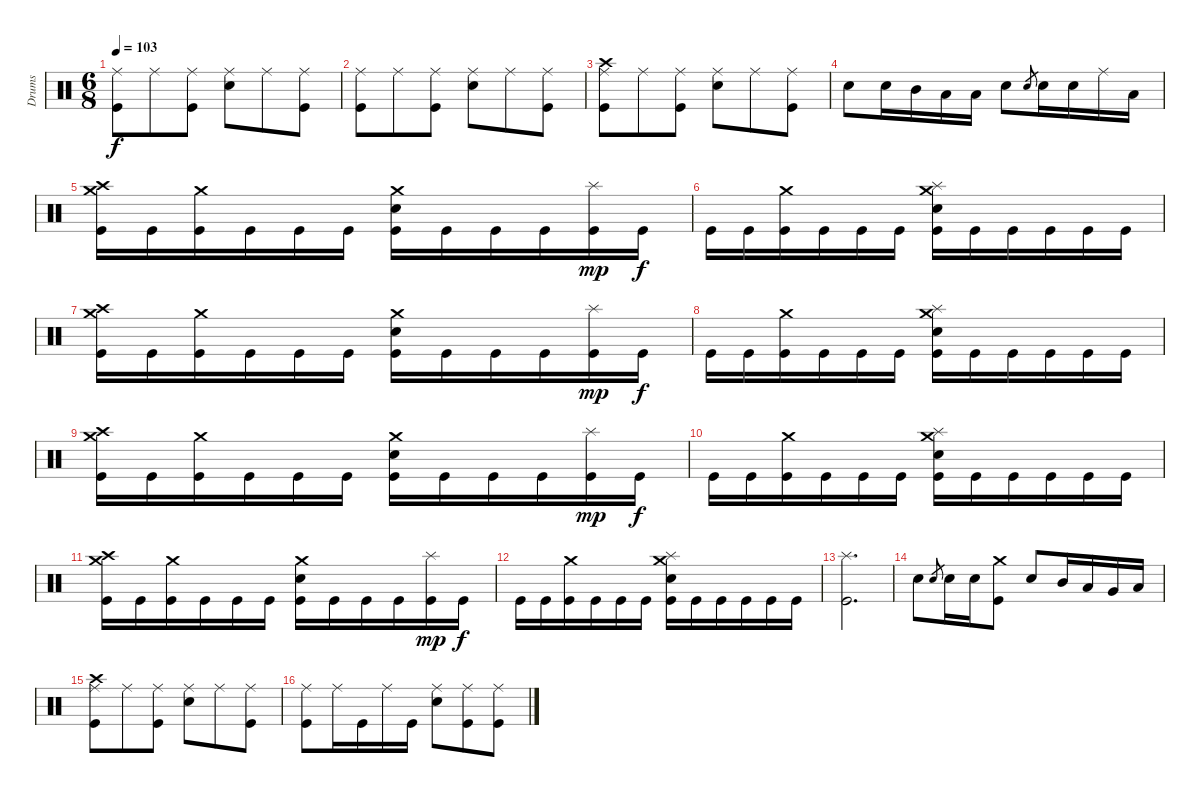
\track ("Drums" "Drums") {instrument percussion}
\staff {score}
\articulation defaults
\ts (6 8)
\tempo 103
\clef neutral
\ks c
("Ride (middle)" "Kick (hit)").8{dy f} "Ride (middle)".8 ("Ride (middle)" "Kick (hit)").8 ("Ride (middle)" "Electric Snare (hit)").8 "Ride (middle)".8 ("Ride (middle)" "Kick (hit)").8 |
("Ride (middle)" "Kick (hit)").8 "Ride (middle)".8 ("Ride (middle)" "Kick (hit)").8 ("Ride (middle)" "Electric Snare (hit)").8 "Ride (middle)".8 ("Ride (middle)" "Kick (hit)").8 |
("Crash high (hit)" "Ride (middle)" "Kick (hit)").8 "Ride (middle)".8 ("Ride (middle)" "Kick (hit)").8 ("Ride (middle)" "Electric Snare (hit)").8 "Ride (middle)".8 ("Ride (middle)" "Kick (hit)").8 |
"Electric Snare (hit)".8 "Electric Snare (hit)".16 "Mid Tom (hit)".16 "Low Tom (hit)".16 "Low Tom (hit)".16 "Electric Snare (hit)".8 "Electric Snare (hit)".8{gr} "Electric Snare (hit)".16 "Electric Snare (hit)".16 "Ride (middle)".16 "Low Floor Tom (hit)".16 |
("Crash high (hit)" "Crash medium (hit)" "Kick (hit)").16 "Kick (hit)".16 ("Crash medium (hit)" "Kick (hit)").16 "Kick (hit)".16 "Kick (hit)".16 "Kick (hit)".16 ("Crash medium (hit)" "Electric Snare (hit)" "Kick (hit)").16 "Kick (hit)".16 "Kick (hit)".16 "Kick (hit)".16 ("Splash (hit)" "Kick (hit)").16{dy mp} "Kick (hit)".16{dy f} |
"Kick (hit)".16 "Kick (hit)".16 ("Crash medium (hit)" "Kick (hit)").16 "Kick (hit)".16 "Kick (hit)".16 "Kick (hit)".16 ("Splash (hit)" "Crash medium (hit)" "Electric Snare (hit)" "Kick (hit)").16 "Kick (hit)".16 "Kick (hit)".16 "Kick (hit)".16 "Kick (hit)".16 "Kick (hit)".16 |
("Crash high (hit)" "Crash medium (hit)" "Kick (hit)").16 "Kick (hit)".16 ("Crash medium (hit)" "Kick (hit)").16 "Kick (hit)".16 "Kick (hit)".16 "Kick (hit)".16 ("Crash medium (hit)" "Electric Snare (hit)" "Kick (hit)").16 "Kick (hit)".16 "Kick (hit)".16 "Kick (hit)".16 ("Splash (hit)" "Kick (hit)").16{dy mp} "Kick (hit)".16{dy f} |
"Kick (hit)".16 "Kick (hit)".16 ("Crash medium (hit)" "Kick (hit)").16 "Kick (hit)".16 "Kick (hit)".16 "Kick (hit)".16 ("Splash (hit)" "Crash medium (hit)" "Electric Snare (hit)" "Kick (hit)").16 "Kick (hit)".16 "Kick (hit)".16 "Kick (hit)".16 "Kick (hit)".16 "Kick (hit)".16 |
("Crash high (hit)" "Crash medium (hit)" "Kick (hit)").16 "Kick (hit)".16 ("Crash medium (hit)" "Kick (hit)").16 "Kick (hit)".16 "Kick (hit)".16 "Kick (hit)".16 ("Crash medium (hit)" "Electric Snare (hit)" "Kick (hit)").16 "Kick (hit)".16 "Kick (hit)".16 "Kick (hit)".16 ("Splash (hit)" "Kick (hit)").16{dy mp} "Kick (hit)".16{dy f} |
"Kick (hit)".16 "Kick (hit)".16 ("Crash medium (hit)" "Kick (hit)").16 "Kick (hit)".16 "Kick (hit)".16 "Kick (hit)".16 ("Splash (hit)" "Crash medium (hit)" "Electric Snare (hit)" "Kick (hit)").16 "Kick (hit)".16 "Kick (hit)".16 "Kick (hit)".16 "Kick (hit)".16 "Kick (hit)".16 |
("Crash high (hit)" "Crash medium (hit)" "Kick (hit)").16 "Kick (hit)".16 ("Crash medium (hit)" "Kick (hit)").16 "Kick (hit)".16 "Kick (hit)".16 "Kick (hit)".16 ("Crash medium (hit)" "Electric Snare (hit)" "Kick (hit)").16 "Kick (hit)".16 "Kick (hit)".16 "Kick (hit)".16 ("Splash (hit)" "Kick (hit)").16{dy mp} "Kick (hit)".16{dy f} |
"Kick (hit)".16 "Kick (hit)".16 ("Crash medium (hit)" "Kick (hit)").16 "Kick (hit)".16 "Kick (hit)".16 "Kick (hit)".16 ("Splash (hit)" "Crash medium (hit)" "Electric Snare (hit)" "Kick (hit)").16 "Kick (hit)".16 "Kick (hit)".16 "Kick (hit)".16 "Kick (hit)".16 "Kick (hit)".16 |
("Splash (hit)" "Kick (hit)").2{d} |
"Electric Snare (hit)".8 "Electric Snare (hit)".8{gr} "Electric Snare (hit)".16 "Electric Snare (hit)".16 ("Crash medium (hit)" "Kick (hit)").8 "Electric Snare (hit)".8 "Mid Tom (hit)".16 "Low Tom (hit)".16 "Very Low Tom (hit)".16 "Low Floor Tom (hit)".16 |
("Crash high (hit)" "Ride (middle)" "Kick (hit)").8 "Ride (middle)".8 ("Ride (middle)" "Kick (hit)").8 ("Ride (middle)" "Electric Snare (hit)").8 "Ride (middle)".8 ("Ride (middle)" "Kick (hit)").8 |
("Ride (middle)" "Kick (hit)").8 "Ride (middle)".16 "Kick (hit)".16 "Ride (middle)".16 "Kick (hit)".16 ("Ride (middle)" "Electric Snare (hit)").8 ("Ride (middle)" "Kick (hit)").8 ("Ride (middle)" "Kick (hit)").8
